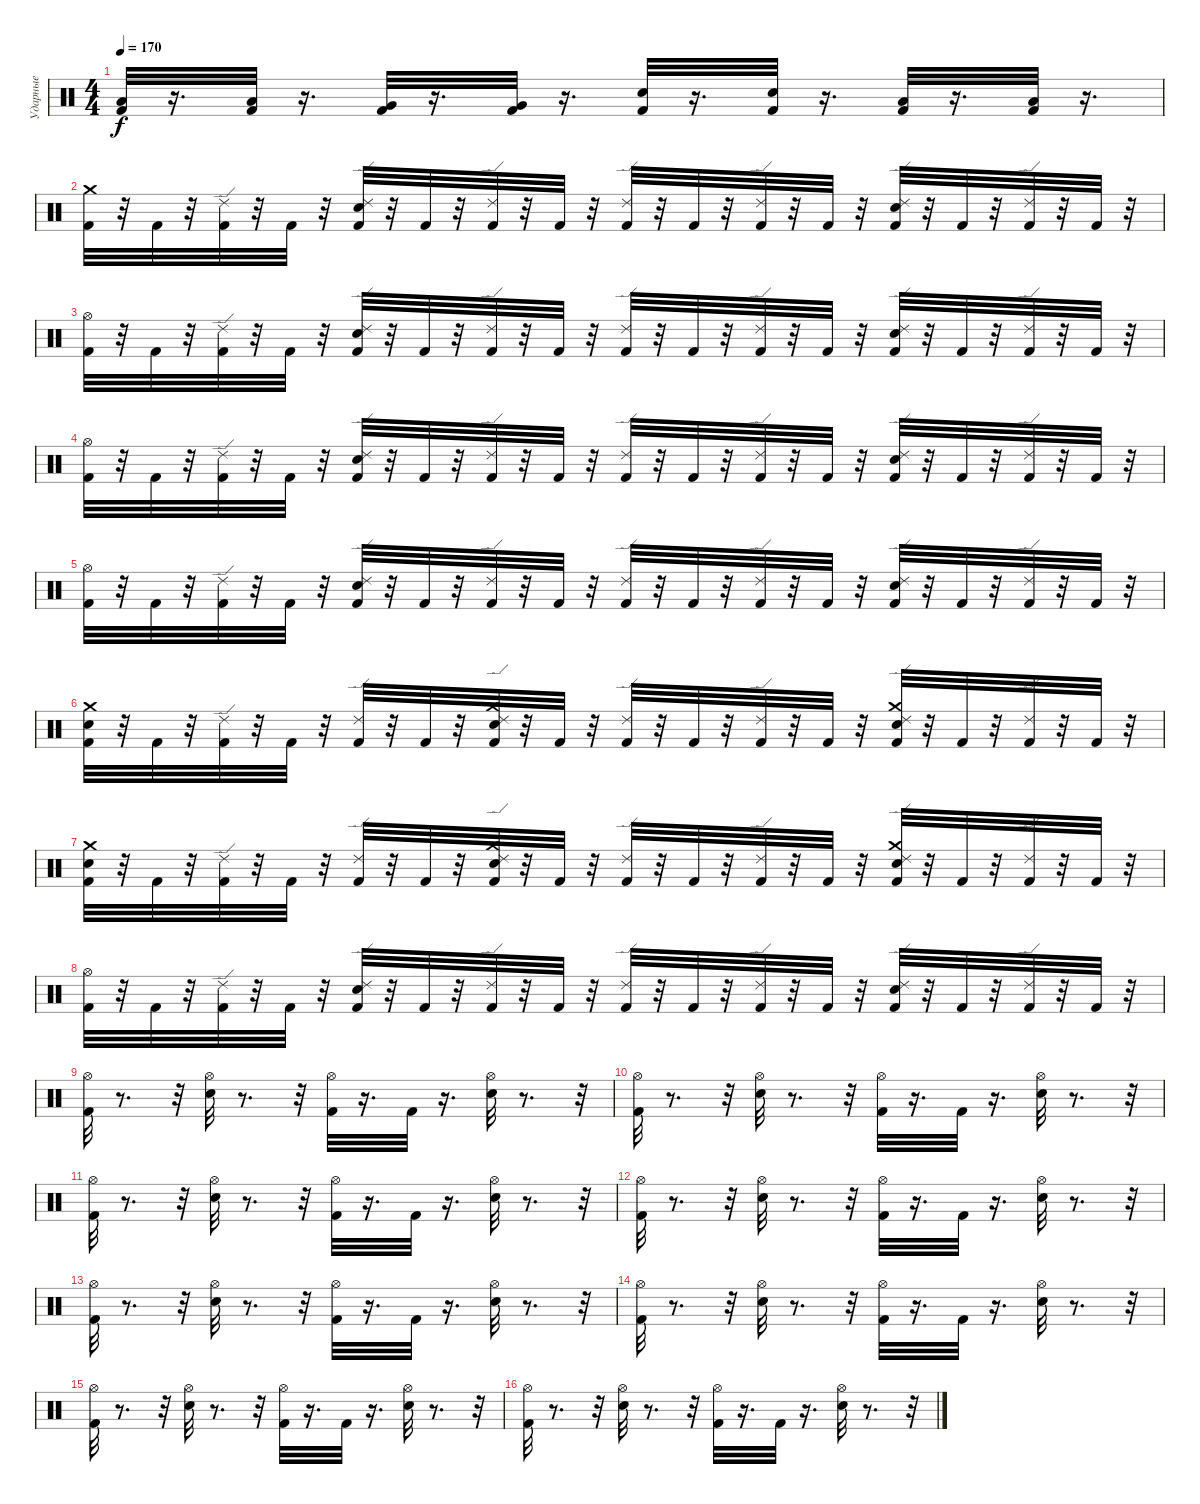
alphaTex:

\track ("Ударные" "Ударные") {instrument percussion}
\staff {score}
\articulation defaults
\ts (4 4)
\tempo 170
\clef neutral
\ks c
("Kick (hit) 2" "Low Tom (hit)").32{dy f} r.16{d} ("Kick (hit) 2" "Low Tom (hit)").32 r.16{d} ("Kick (hit) 2" "Very Low Tom (hit)").32 r.16{d} ("Kick (hit) 2" "Very Low Tom (hit)").32 r.16{d} ("Kick (hit) 2" "Electric Snare (hit)").32 r.16{d} ("Kick (hit) 2" "Electric Snare (hit)").32 r.16{d} ("Kick (hit) 2" "Low Floor Tom (hit)").32 r.16{d} ("Kick (hit) 2" "Low Floor Tom (hit)").32 r.16{d} |
("Crash medium (hit)" "Kick (hit) 2").32 r.32 "Kick (hit) 2".32 r.32 ("Ride (edge) 2" "Kick (hit) 2").32 r.32 "Kick (hit) 2".32 r.32 ("Ride (edge) 2" "Electric Snare (hit)" "Kick (hit) 2").32 r.32 "Kick (hit) 2".32 r.32 ("Ride (edge) 2" "Kick (hit) 2").32 r.32 "Kick (hit) 2".32 r.32 ("Ride (edge) 2" "Kick (hit) 2").32 r.32 "Kick (hit) 2".32 r.32 ("Ride (edge) 2" "Kick (hit) 2").32 r.32 "Kick (hit) 2".32 r.32 ("Ride (edge) 2" "Electric Snare (hit)" "Kick (hit) 2").32 r.32 "Kick (hit) 2".32 r.32 ("Ride (edge) 2" "Kick (hit) 2").32 r.32 "Kick (hit) 2".32 r.32 |
("Hi-Hat (open)" "Kick (hit) 2").32 r.32 "Kick (hit) 2".32 r.32 ("Ride (edge) 2" "Kick (hit) 2").32 r.32 "Kick (hit) 2".32 r.32 ("Ride (edge) 2" "Electric Snare (hit)" "Kick (hit) 2").32 r.32 "Kick (hit) 2".32 r.32 ("Ride (edge) 2" "Kick (hit) 2").32 r.32 "Kick (hit) 2".32 r.32 ("Ride (edge) 2" "Kick (hit) 2").32 r.32 "Kick (hit) 2".32 r.32 ("Ride (edge) 2" "Kick (hit) 2").32 r.32 "Kick (hit) 2".32 r.32 ("Ride (edge) 2" "Electric Snare (hit)" "Kick (hit) 2").32 r.32 "Kick (hit) 2".32 r.32 ("Ride (edge) 2" "Kick (hit) 2").32 r.32 "Kick (hit) 2".32 r.32 |
("Hi-Hat (open)" "Kick (hit) 2").32 r.32 "Kick (hit) 2".32 r.32 ("Ride (edge) 2" "Kick (hit) 2").32 r.32 "Kick (hit) 2".32 r.32 ("Ride (edge) 2" "Electric Snare (hit)" "Kick (hit) 2").32 r.32 "Kick (hit) 2".32 r.32 ("Ride (edge) 2" "Kick (hit) 2").32 r.32 "Kick (hit) 2".32 r.32 ("Ride (edge) 2" "Kick (hit) 2").32 r.32 "Kick (hit) 2".32 r.32 ("Ride (edge) 2" "Kick (hit) 2").32 r.32 "Kick (hit) 2".32 r.32 ("Ride (edge) 2" "Electric Snare (hit)" "Kick (hit) 2").32 r.32 "Kick (hit) 2".32 r.32 ("Ride (edge) 2" "Kick (hit) 2").32 r.32 "Kick (hit) 2".32 r.32 |
("Hi-Hat (open)" "Kick (hit) 2").32 r.32 "Kick (hit) 2".32 r.32 ("Ride (edge) 2" "Kick (hit) 2").32 r.32 "Kick (hit) 2".32 r.32 ("Ride (edge) 2" "Electric Snare (hit)" "Kick (hit) 2").32 r.32 "Kick (hit) 2".32 r.32 ("Ride (edge) 2" "Kick (hit) 2").32 r.32 "Kick (hit) 2".32 r.32 ("Ride (edge) 2" "Kick (hit) 2").32 r.32 "Kick (hit) 2".32 r.32 ("Ride (edge) 2" "Kick (hit) 2").32 r.32 "Kick (hit) 2".32 r.32 ("Ride (edge) 2" "Electric Snare (hit)" "Kick (hit) 2").32 r.32 "Kick (hit) 2".32 r.32 ("Ride (edge) 2" "Kick (hit) 2").32 r.32 "Kick (hit) 2".32 r.32 |
("Crash medium (hit)" "Electric Snare (hit)" "Kick (hit) 2").32 r.32 "Kick (hit) 2".32 r.32 ("Ride (edge) 2" "Kick (hit) 2").32 r.32 "Kick (hit) 2".32 r.32 ("Ride (edge) 2" "Kick (hit) 2").32 r.32 "Kick (hit) 2".32 r.32 ("Crash medium (hit)" "Ride (edge) 2" "Electric Snare (hit)" "Kick (hit) 2").32 r.32 "Kick (hit) 2".32 r.32 ("Ride (edge) 2" "Kick (hit) 2").32 r.32 "Kick (hit) 2".32 r.32 ("Ride (edge) 2" "Kick (hit) 2").32 r.32 "Kick (hit) 2".32 r.32 ("Crash medium (hit)" "Ride (edge) 2" "Electric Snare (hit)" "Kick (hit) 2").32 r.32 "Kick (hit) 2".32 r.32 ("Ride (edge) 2" "Kick (hit) 2").32 r.32 "Kick (hit) 2".32 r.32 |
("Crash medium (hit)" "Electric Snare (hit)" "Kick (hit) 2").32 r.32 "Kick (hit) 2".32 r.32 ("Ride (edge) 2" "Kick (hit) 2").32 r.32 "Kick (hit) 2".32 r.32 ("Ride (edge) 2" "Kick (hit) 2").32 r.32 "Kick (hit) 2".32 r.32 ("Crash medium (hit)" "Ride (edge) 2" "Electric Snare (hit)" "Kick (hit) 2").32 r.32 "Kick (hit) 2".32 r.32 ("Ride (edge) 2" "Kick (hit) 2").32 r.32 "Kick (hit) 2".32 r.32 ("Ride (edge) 2" "Kick (hit) 2").32 r.32 "Kick (hit) 2".32 r.32 ("Crash medium (hit)" "Ride (edge) 2" "Electric Snare (hit)" "Kick (hit) 2").32 r.32 "Kick (hit) 2".32 r.32 ("Ride (edge) 2" "Kick (hit) 2").32 r.32 "Kick (hit) 2".32 r.32 |
("Hi-Hat (open)" "Kick (hit) 2").32 r.32 "Kick (hit) 2".32 r.32 ("Ride (edge) 2" "Kick (hit) 2").32 r.32 "Kick (hit) 2".32 r.32 ("Ride (edge) 2" "Electric Snare (hit)" "Kick (hit) 2").32 r.32 "Kick (hit) 2".32 r.32 ("Ride (edge) 2" "Kick (hit) 2").32 r.32 "Kick (hit) 2".32 r.32 ("Ride (edge) 2" "Kick (hit) 2").32 r.32 "Kick (hit) 2".32 r.32 ("Ride (edge) 2" "Kick (hit) 2").32 r.32 "Kick (hit) 2".32 r.32 ("Ride (edge) 2" "Electric Snare (hit)" "Kick (hit) 2").32 r.32 "Kick (hit) 2".32 r.32 ("Ride (edge) 2" "Kick (hit) 2").32 r.32 "Kick (hit) 2".32 r.32 |
("Hi-Hat (open)" "Kick (hit) 2").32 r.8{d} r.32 ("Hi-Hat (open)" "Electric Snare (hit)").32 r.8{d} r.32 ("Hi-Hat (open)" "Kick (hit) 2").32 r.16{d} "Kick (hit) 2".32 r.16{d} ("Hi-Hat (open)" "Electric Snare (hit)").32 r.8{d} r.32 |
("Hi-Hat (open)" "Kick (hit) 2").32 r.8{d} r.32 ("Hi-Hat (open)" "Electric Snare (hit)").32 r.8{d} r.32 ("Hi-Hat (open)" "Kick (hit) 2").32 r.16{d} "Kick (hit) 2".32 r.16{d} ("Hi-Hat (open)" "Electric Snare (hit)").32 r.8{d} r.32 |
("Hi-Hat (open)" "Kick (hit) 2").32 r.8{d} r.32 ("Hi-Hat (open)" "Electric Snare (hit)").32 r.8{d} r.32 ("Hi-Hat (open)" "Kick (hit) 2").32 r.16{d} "Kick (hit) 2".32 r.16{d} ("Hi-Hat (open)" "Electric Snare (hit)").32 r.8{d} r.32 |
("Hi-Hat (open)" "Kick (hit) 2").32 r.8{d} r.32 ("Hi-Hat (open)" "Electric Snare (hit)").32 r.8{d} r.32 ("Hi-Hat (open)" "Kick (hit) 2").32 r.16{d} "Kick (hit) 2".32 r.16{d} ("Hi-Hat (open)" "Electric Snare (hit)").32 r.8{d} r.32 |
("Hi-Hat (open)" "Kick (hit) 2").32 r.8{d} r.32 ("Hi-Hat (open)" "Electric Snare (hit)").32 r.8{d} r.32 ("Hi-Hat (open)" "Kick (hit) 2").32 r.16{d} "Kick (hit) 2".32 r.16{d} ("Hi-Hat (open)" "Electric Snare (hit)").32 r.8{d} r.32 |
("Hi-Hat (open)" "Kick (hit) 2").32 r.8{d} r.32 ("Hi-Hat (open)" "Electric Snare (hit)").32 r.8{d} r.32 ("Hi-Hat (open)" "Kick (hit) 2").32 r.16{d} "Kick (hit) 2".32 r.16{d} ("Hi-Hat (open)" "Electric Snare (hit)").32 r.8{d} r.32 |
("Hi-Hat (open)" "Kick (hit) 2").32 r.8{d} r.32 ("Hi-Hat (open)" "Electric Snare (hit)").32 r.8{d} r.32 ("Hi-Hat (open)" "Kick (hit) 2").32 r.16{d} "Kick (hit) 2".32 r.16{d} ("Hi-Hat (open)" "Electric Snare (hit)").32 r.8{d} r.32 |
("Hi-Hat (open)" "Kick (hit) 2").32 r.8{d} r.32 ("Hi-Hat (open)" "Electric Snare (hit)").32 r.8{d} r.32 ("Hi-Hat (open)" "Kick (hit) 2").32 r.16{d} "Kick (hit) 2".32 r.16{d} ("Hi-Hat (open)" "Electric Snare (hit)").32 r.8{d} r.32
